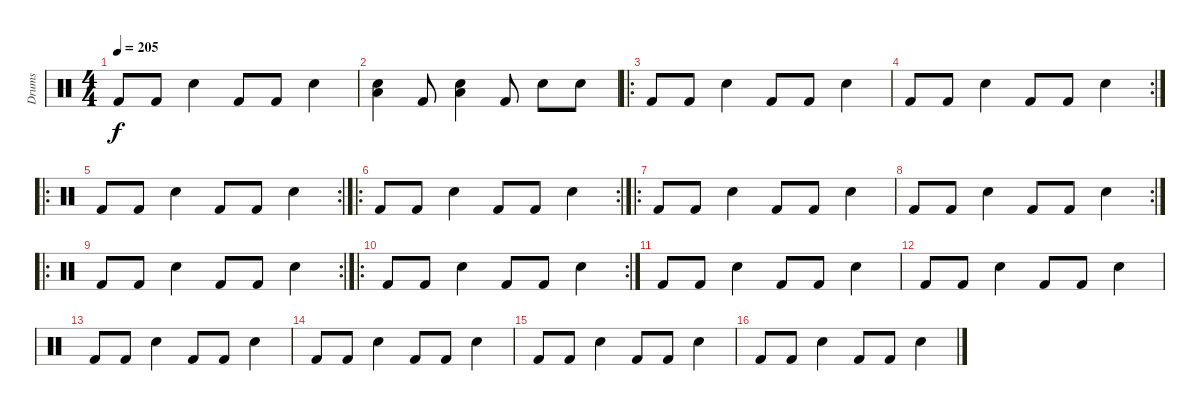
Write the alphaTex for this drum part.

\track ("Drums " "Drums ") {instrument percussion}
\staff {score}
\articulation defaults
\ts (4 4)
\tempo 205
\clef neutral
\ks c "Kick (hit) 2".8{dy f} "Kick (hit) 2".8 "Electric Snare (hit)".4 "Kick (hit) 2".8 "Kick (hit) 2".8 "Electric Snare (hit)".4
|
("Low Floor Tom (hit)" "Electric Snare (hit)").4 "Kick (hit) 2".8 ("Low Floor Tom (hit)" "Electric Snare (hit)").4 "Kick (hit) 2".8 "Electric Snare (hit)".8 "Electric Snare (hit)".8 |
\ro "Kick (hit) 2".8 "Kick (hit) 2".8 "Electric Snare (hit)".4 "Kick (hit) 2".8 "Kick (hit) 2".8 "Electric Snare (hit)".4
|
\rc 2 "Kick (hit) 2".8 "Kick (hit) 2".8 "Electric Snare (hit)".4 "Kick (hit) 2".8 "Kick (hit) 2".8 "Electric Snare (hit)".4
|
\ro
\rc 2 "Kick (hit) 2".8 "Kick (hit) 2".8 "Electric Snare (hit)".4 "Kick (hit) 2".8 "Kick (hit) 2".8 "Electric Snare (hit)".4
|
\ro
\rc 2 "Kick (hit) 2".8 "Kick (hit) 2".8 "Electric Snare (hit)".4 "Kick (hit) 2".8 "Kick (hit) 2".8 "Electric Snare (hit)".4
|
\ro "Kick (hit) 2".8 "Kick (hit) 2".8 "Electric Snare (hit)".4 "Kick (hit) 2".8 "Kick (hit) 2".8 "Electric Snare (hit)".4
|
\rc 2 "Kick (hit) 2".8 "Kick (hit) 2".8 "Electric Snare (hit)".4 "Kick (hit) 2".8 "Kick (hit) 2".8 "Electric Snare (hit)".4
|
\ro
\rc 2 "Kick (hit) 2".8 "Kick (hit) 2".8 "Electric Snare (hit)".4 "Kick (hit) 2".8 "Kick (hit) 2".8 "Electric Snare (hit)".4
|
\ro
\rc 2 "Kick (hit) 2".8 "Kick (hit) 2".8 "Electric Snare (hit)".4 "Kick (hit) 2".8 "Kick (hit) 2".8 "Electric Snare (hit)".4
|
"Kick (hit) 2".8 "Kick (hit) 2".8 "Electric Snare (hit)".4 "Kick (hit) 2".8 "Kick (hit) 2".8 "Electric Snare (hit)".4 |
"Kick (hit) 2".8 "Kick (hit) 2".8 "Electric Snare (hit)".4 "Kick (hit) 2".8 "Kick (hit) 2".8 "Electric Snare (hit)".4 |
"Kick (hit) 2".8 "Kick (hit) 2".8 "Electric Snare (hit)".4 "Kick (hit) 2".8 "Kick (hit) 2".8 "Electric Snare (hit)".4 |
"Kick (hit) 2".8 "Kick (hit) 2".8 "Electric Snare (hit)".4 "Kick (hit) 2".8 "Kick (hit) 2".8 "Electric Snare (hit)".4 |
"Kick (hit) 2".8 "Kick (hit) 2".8 "Electric Snare (hit)".4 "Kick (hit) 2".8 "Kick (hit) 2".8 "Electric Snare (hit)".4 |
"Kick (hit) 2".8 "Kick (hit) 2".8 "Electric Snare (hit)".4 "Kick (hit) 2".8 "Kick (hit) 2".8 "Electric Snare (hit)".4
